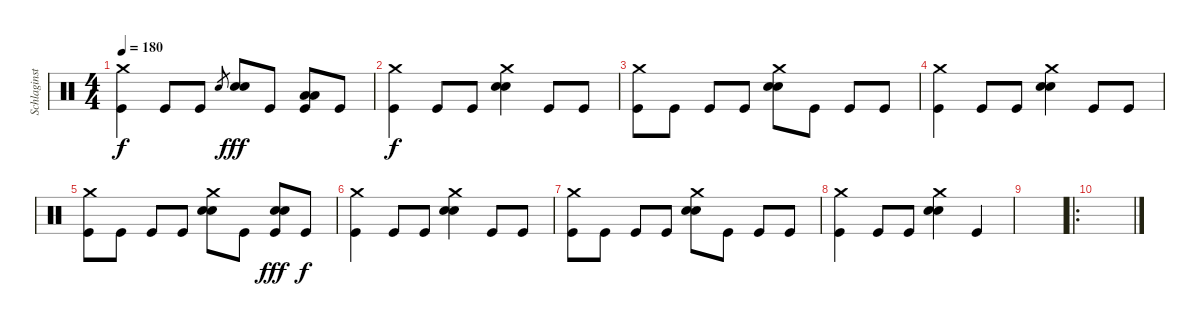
\track ("Schlaginstrumente - Auswahl" "Schlaginst") {instrument percussion}
\staff {score}
\articulation defaults
\ts (4 4)
\tempo 180
\clef neutral
\ks c
("Crash medium (hit)" "Kick (hit)").4{dy f} "Kick (hit)".8 "Kick (hit)".8 "Electric Snare (hit)".8{gr} ("Snare (hit) 2" "Electric Snare (hit)").8{dy fff} "Kick (hit)".8 ("Kick (hit)" "Low Tom (hit)" "Low Floor Tom (hit)").8 "Kick (hit)".8 |
("Crash medium (hit)" "Kick (hit)").4{dy f} "Kick (hit)".8 "Kick (hit)".8 ("Snare (hit) 2" "Electric Snare (hit)" "Crash medium (hit)").4 "Kick (hit)".8 "Kick (hit)".8 |
("Crash medium (hit)" "Kick (hit)").8 "Kick (hit)".8 "Kick (hit)".8 "Kick (hit)".8 ("Snare (hit) 2" "Electric Snare (hit)" "Crash medium (hit)").8 "Kick (hit)".8 "Kick (hit)".8 "Kick (hit)".8 |
("Crash medium (hit)" "Kick (hit)").4 "Kick (hit)".8 "Kick (hit)".8 ("Snare (hit) 2" "Electric Snare (hit)" "Crash medium (hit)").4 "Kick (hit)".8 "Kick (hit)".8 |
("Crash medium (hit)" "Kick (hit)").8 "Kick (hit)".8 "Kick (hit)".8 "Kick (hit)".8 ("Snare (hit) 2" "Electric Snare (hit)" "Crash medium (hit)").8 "Kick (hit)".8 ("Kick (hit)" "Snare (hit) 2" "Electric Snare (hit)").8{dy fff} "Kick (hit)".8{dy f} |
("Crash medium (hit)" "Kick (hit)").4 "Kick (hit)".8 "Kick (hit)".8 ("Snare (hit) 2" "Electric Snare (hit)" "Crash medium (hit)").4 "Kick (hit)".8 "Kick (hit)".8 |
("Crash medium (hit)" "Kick (hit)").8 "Kick (hit)".8 "Kick (hit)".8 "Kick (hit)".8 ("Snare (hit) 2" "Electric Snare (hit)" "Crash medium (hit)").8 "Kick (hit)".8 "Kick (hit)".8 "Kick (hit)".8 |
("Crash medium (hit)" "Kick (hit)").4 "Kick (hit)".8 "Kick (hit)".8 ("Snare (hit) 2" "Electric Snare (hit)" "Crash medium (hit)").4 "Kick (hit)".4 |
|
\ro
